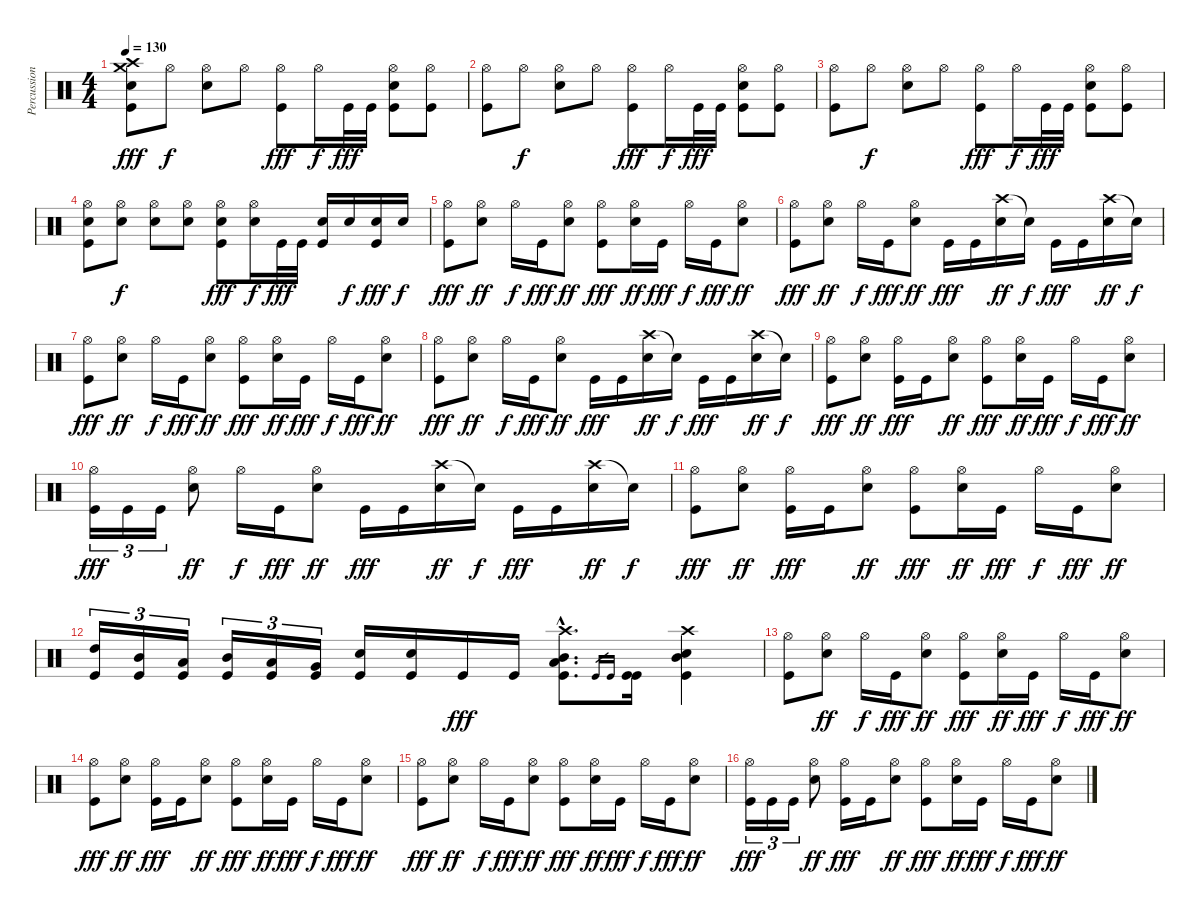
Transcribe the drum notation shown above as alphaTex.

\track ("Percussion" "Percussion") {instrument percussion}
\staff {score}
\articulation defaults
\ts (4 4)
\tempo 130
\clef neutral
\ks c
("Crash high (hit)" "Crash medium (hit)" "Snare (hit) 2" "Kick (hit)").8{dy fff} "Hi-Hat (open)".8{dy f} ("Hi-Hat (open)" "Snare (hit) 2").8 "Hi-Hat (open)".8 ("Hi-Hat (open)" "Kick (hit)").8{dy fff} "Hi-Hat (open)".16{dy f} "Kick (hit)".32{dy fff} "Kick (hit)".32 ("Hi-Hat (open)" "Snare (hit) 2" "Kick (hit)").8 ("Hi-Hat (open)" "Kick (hit)").8 |
("Hi-Hat (open)" "Kick (hit)").8 "Hi-Hat (open)".8{dy f} ("Hi-Hat (open)" "Snare (hit) 2").8 "Hi-Hat (open)".8 ("Hi-Hat (open)" "Kick (hit)").8{dy fff} "Hi-Hat (open)".16{dy f} "Kick (hit)".32{dy fff} "Kick (hit)".32 ("Hi-Hat (open)" "Snare (hit) 2" "Kick (hit)").8 ("Hi-Hat (open)" "Kick (hit)").8 |
("Hi-Hat (open)" "Kick (hit)").8 "Hi-Hat (open)".8{dy f} ("Hi-Hat (open)" "Snare (hit) 2").8 "Hi-Hat (open)".8 ("Hi-Hat (open)" "Kick (hit)").8{dy fff} "Hi-Hat (open)".16{dy f} "Kick (hit)".32{dy fff} "Kick (hit)".32 ("Hi-Hat (open)" "Snare (hit) 2" "Kick (hit)").8 ("Hi-Hat (open)" "Kick (hit)").8 |
("Hi-Hat (open)" "Snare (hit) 2" "Kick (hit)").8 ("Hi-Hat (open)" "Snare (hit) 2").8{dy f} ("Hi-Hat (open)" "Snare (hit) 2").8 ("Hi-Hat (open)" "Snare (hit) 2").8 ("Hi-Hat (open)" "Snare (hit) 2" "Kick (hit)").8{dy fff} ("Hi-Hat (open)" "Snare (hit) 2").16{dy f} "Kick (hit)".32{dy fff} "Kick (hit)".32 ("Snare (hit) 2" "Kick (hit)").16 "Snare (hit) 2".16{dy f} ("Snare (hit) 2" "Kick (hit)").16{dy fff} "Snare (hit) 2".16{dy f} |
("Hi-Hat (open)" "Kick (hit)").8{dy fff} ("Hi-Hat (open)" "Snare (hit) 2").8{dy ff} "Hi-Hat (open)".16{dy f} "Kick (hit)".16{dy fff} ("Hi-Hat (open)" "Snare (hit) 2").8{dy ff} ("Hi-Hat (open)" "Kick (hit)").8{dy fff} ("Hi-Hat (open)" "Snare (hit) 2").16{dy ff} "Kick (hit)".16{dy fff} "Hi-Hat (open)".16{dy f} "Kick (hit)".16{dy fff} ("Hi-Hat (open)" "Snare (hit) 2").8{dy ff} |
("Hi-Hat (open)" "Kick (hit)").8{dy fff} ("Hi-Hat (open)" "Snare (hit) 2").8{dy ff} "Hi-Hat (open)".16{dy f} "Kick (hit)".16{dy fff} ("Hi-Hat (open)" "Snare (hit) 2").8{dy ff} "Kick (hit)".16{dy fff} "Kick (hit)".16 ("Crash high (hit)" "Snare (hit) 2").16{dy ff} "Snare (hit)"{t}.16{dy f} "Kick (hit)".16{dy fff} "Kick (hit)".16 ("Crash high (hit)" "Snare (hit) 2").16{dy ff} "Snare (hit)"{t}.16{dy f} |
("Hi-Hat (open)" "Kick (hit)").8{dy fff} ("Hi-Hat (open)" "Snare (hit) 2").8{dy ff} "Hi-Hat (open)".16{dy f} "Kick (hit)".16{dy fff} ("Hi-Hat (open)" "Snare (hit) 2").8{dy ff} ("Hi-Hat (open)" "Kick (hit)").8{dy fff} ("Hi-Hat (open)" "Snare (hit) 2").16{dy ff} "Kick (hit)".16{dy fff} "Hi-Hat (open)".16{dy f} "Kick (hit)".16{dy fff} ("Hi-Hat (open)" "Snare (hit) 2").8{dy ff} |
("Hi-Hat (open)" "Kick (hit)").8{dy fff} ("Hi-Hat (open)" "Snare (hit) 2").8{dy ff} "Hi-Hat (open)".16{dy f} "Kick (hit)".16{dy fff} ("Hi-Hat (open)" "Snare (hit) 2").8{dy ff} "Kick (hit)".16{dy fff} "Kick (hit)".16 ("Crash high (hit)" "Snare (hit) 2").16{dy ff} "Snare (hit)"{t}.16{dy f} "Kick (hit)".16{dy fff} "Kick (hit)".16 ("Crash high (hit)" "Snare (hit) 2").16{dy ff} "Snare (hit)"{t}.16{dy f} |
("Hi-Hat (open)" "Kick (hit)").8{dy fff} ("Hi-Hat (open)" "Snare (hit) 2").8{dy ff} ("Hi-Hat (open)" "Kick (hit)").16{dy fff} "Kick (hit)".16 ("Hi-Hat (open)" "Snare (hit) 2").8{dy ff} ("Hi-Hat (open)" "Kick (hit)").8{dy fff} ("Hi-Hat (open)" "Snare (hit) 2").16{dy ff} "Kick (hit)".16{dy fff} "Hi-Hat (open)".16{dy f} "Kick (hit)".16{dy fff} ("Hi-Hat (open)" "Snare (hit) 2").8{dy ff} |
("Hi-Hat (open)" "Kick (hit)").16{tu (3 2) dy fff} "Kick (hit)".16{tu (3 2)} "Kick (hit)".16{tu (3 2)} ("Hi-Hat (open)" "Snare (hit) 2").8{dy ff} "Hi-Hat (open)".16{dy f} "Kick (hit)".16{dy fff} ("Hi-Hat (open)" "Snare (hit) 2").8{dy ff} "Kick (hit)".16{dy fff} "Kick (hit)".16 ("Crash high (hit)" "Snare (hit) 2").16{dy ff} "Snare (hit)"{t}.16{dy f} "Kick (hit)".16{dy fff} "Kick (hit)".16 ("Crash high (hit)" "Snare (hit) 2").16{dy ff} "Snare (hit)"{t}.16{dy f} |
("Hi-Hat (open)" "Kick (hit)").8{dy fff} ("Hi-Hat (open)" "Snare (hit) 2").8{dy ff} ("Hi-Hat (open)" "Kick (hit)").16{dy fff} "Kick (hit)".16 ("Hi-Hat (open)" "Snare (hit) 2").8{dy ff} ("Hi-Hat (open)" "Kick (hit)").8{dy fff} ("Hi-Hat (open)" "Snare (hit) 2").16{dy ff} "Kick (hit)".16{dy fff} "Hi-Hat (open)".16{dy f} "Kick (hit)".16{dy fff} ("Hi-Hat (open)" "Snare (hit) 2").8{dy ff} |
("High Tom (hit)" "Kick (hit)").16{tu (3 2)} ("Mid Tom (hit)" "Kick (hit)").16{tu (3 2)} ("Low Tom (hit)" "Kick (hit)").16{tu (3 2)} ("Mid Tom (hit)" "Kick (hit)").16{tu (3 2)} ("Low Tom (hit)" "Kick (hit)").16{tu (3 2)} ("Very Low Tom (hit)" "Kick (hit)").16{tu (3 2)} ("Snare (hit) 2" "Kick (hit)").16 ("Snare (hit) 2" "Kick (hit)").16 "Kick (hit)".16{dy fff} "Kick (hit)".16 ("Crash high (hit)"{hac} "Mid Tom (hit)"{hac} "Low Tom (hit)"{hac} "Kick (hit)"{hac}).8{d} "Kick (hit)".16{gr} "Kick (hit)".16{gr} ("Kick (hit)" "Kick (hit)").16 ("Crash high (hit)" "Mid Tom (hit)" "Snare (hit) 2" "Kick (hit)").4 |
("Hi-Hat (open)" "Kick (hit)").8 ("Hi-Hat (open)" "Snare (hit) 2").8{dy ff} "Hi-Hat (open)".16{dy f} "Kick (hit)".16{dy fff} ("Hi-Hat (open)" "Snare (hit) 2").8{dy ff} ("Hi-Hat (open)" "Kick (hit)").8{dy fff} ("Hi-Hat (open)" "Snare (hit) 2").16{dy ff} "Kick (hit)".16{dy fff} "Hi-Hat (open)".16{dy f} "Kick (hit)".16{dy fff} ("Hi-Hat (open)" "Snare (hit) 2").8{dy ff} |
("Hi-Hat (open)" "Kick (hit)").8{dy fff} ("Hi-Hat (open)" "Snare (hit) 2").8{dy ff} ("Hi-Hat (open)" "Kick (hit)").16{dy fff} "Kick (hit)".16 ("Hi-Hat (open)" "Snare (hit) 2").8{dy ff} ("Hi-Hat (open)" "Kick (hit)").8{dy fff} ("Hi-Hat (open)" "Snare (hit) 2").16{dy ff} "Kick (hit)".16{dy fff} "Hi-Hat (open)".16{dy f} "Kick (hit)".16{dy fff} ("Hi-Hat (open)" "Snare (hit) 2").8{dy ff} |
("Hi-Hat (open)" "Kick (hit)").8{dy fff} ("Hi-Hat (open)" "Snare (hit) 2").8{dy ff} "Hi-Hat (open)".16{dy f} "Kick (hit)".16{dy fff} ("Hi-Hat (open)" "Snare (hit) 2").8{dy ff} ("Hi-Hat (open)" "Kick (hit)").8{dy fff} ("Hi-Hat (open)" "Snare (hit) 2").16{dy ff} "Kick (hit)".16{dy fff} "Hi-Hat (open)".16{dy f} "Kick (hit)".16{dy fff} ("Hi-Hat (open)" "Snare (hit) 2").8{dy ff} |
("Hi-Hat (open)" "Kick (hit)").16{tu (3 2) dy fff} "Kick (hit)".16{tu (3 2)} "Kick (hit)".16{tu (3 2)} ("Hi-Hat (open)" "Snare (hit) 2").8{dy ff} ("Hi-Hat (open)" "Kick (hit)").16{dy fff} "Kick (hit)".16 ("Hi-Hat (open)" "Snare (hit) 2").8{dy ff} ("Hi-Hat (open)" "Kick (hit)").8{dy fff} ("Hi-Hat (open)" "Snare (hit) 2").16{dy ff} "Kick (hit)".16{dy fff} "Hi-Hat (open)".16{dy f} "Kick (hit)".16{dy fff} ("Hi-Hat (open)" "Snare (hit) 2").8{dy ff}
